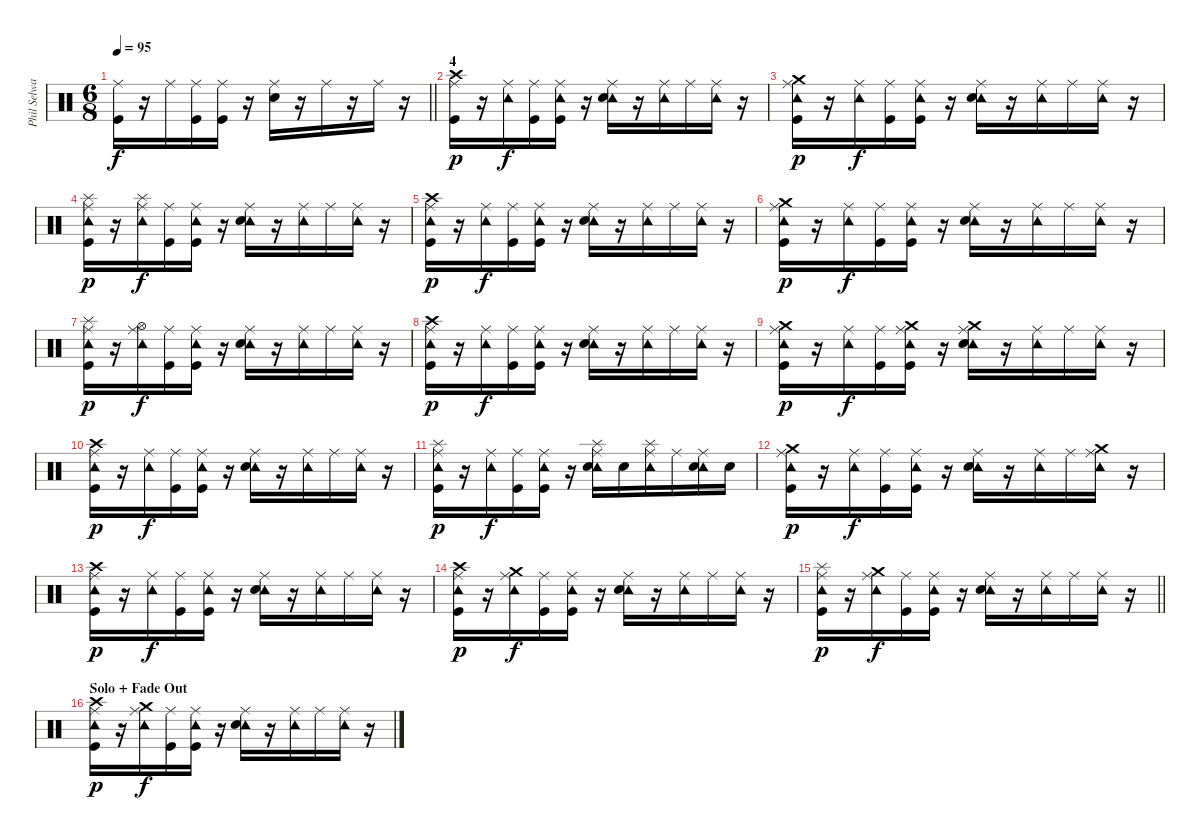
\track ("Phil Selway (Percussions)" "Phil Selwa") {instrument percussion}
\staff {score}
\articulation defaults
\ts (6 8)
\tempo 95
\clef neutral
\barLineRight lightlight
\ks c
("Ride (middle)" "Kick (hit)").16{dy f} r.16 "Ride (middle)".16 ("Ride (middle)" "Kick (hit)").16 ("Ride (middle)" "Kick (hit)").16 r.16 ("Ride (middle)" "Electric Snare (hit)").16 r.16 "Ride (middle)".16 r.16 "Ride (middle)".16 r.16 |
\section ("" "4")
("Ride (middle)" "Crash high (hit)" "Kick (hit)").16{dy p} r.16 ("Ride (middle)" "Tambourine (hit)").16{dy f} ("Ride (middle)" "Kick (hit)").16 ("Ride (middle)" "Tambourine (hit)" "Kick (hit)").16 r.16 ("Ride (middle)" "Tambourine (hit)" "Electric Snare (hit)").16 r.16 ("Ride (middle)" "Tambourine (hit)").16 "Ride (middle)".16 ("Ride (middle)" "Tambourine (hit)").16 r.16 |
("Ride (middle)" "Tambourine (hit)" "Crash medium (hit)" "Kick (hit)").16{dy p} r.16 ("Ride (middle)" "Tambourine (hit)").16{dy f} ("Ride (middle)" "Kick (hit)").16 ("Ride (middle)" "Tambourine (hit)" "Kick (hit)").16 r.16 ("Ride (middle)" "Tambourine (hit)" "Electric Snare (hit)").16 r.16 ("Ride (middle)" "Tambourine (hit)").16 "Ride (middle)".16 ("Ride (middle)" "Tambourine (hit)").16 r.16 |
("Ride (middle)" "Tambourine (hit)" "Splash (hit)" "Kick (hit)").16{dy p} r.16 ("Ride (middle)" "Tambourine (hit)" "Splash (hit)").16{dy f} ("Ride (middle)" "Kick (hit)").16 ("Ride (middle)" "Tambourine (hit)" "Kick (hit)").16 r.16 ("Ride (middle)" "Tambourine (hit)" "Electric Snare (hit)").16 r.16 ("Ride (middle)" "Tambourine (hit)").16 "Ride (middle)".16 ("Ride (middle)" "Tambourine (hit)").16 r.16 |
("Ride (middle)" "Tambourine (hit)" "Crash high (hit)" "Kick (hit)").16{dy p} r.16 ("Ride (middle)" "Tambourine (hit)").16{dy f} ("Ride (middle)" "Kick (hit)").16 ("Ride (middle)" "Tambourine (hit)" "Kick (hit)").16 r.16 ("Ride (middle)" "Tambourine (hit)" "Electric Snare (hit)").16 r.16 ("Ride (middle)" "Tambourine (hit)").16 "Ride (middle)".16 ("Ride (middle)" "Tambourine (hit)").16 r.16 |
("Ride (middle)" "Tambourine (hit)" "Crash medium (hit)" "Kick (hit)").16{dy p} r.16 ("Ride (middle)" "Tambourine (hit)").16{dy f} ("Ride (middle)" "Kick (hit)").16 ("Ride (middle)" "Tambourine (hit)" "Kick (hit)").16 r.16 ("Ride (middle)" "Tambourine (hit)" "Electric Snare (hit)").16 r.16 ("Ride (middle)" "Tambourine (hit)").16 "Ride (middle)".16 ("Ride (middle)" "Tambourine (hit)").16 r.16 |
("Ride (middle)" "Tambourine (hit)" "Splash (hit)" "Kick (hit)").16{dy p} r.16 ("Ride (middle)" "Tambourine (hit)" "Hi-Hat (open)").16{dy f} ("Ride (middle)" "Kick (hit)").16 ("Ride (middle)" "Tambourine (hit)" "Kick (hit)").16 r.16 ("Ride (middle)" "Tambourine (hit)" "Electric Snare (hit)").16 r.16 ("Ride (middle)" "Tambourine (hit)").16 "Ride (middle)".16 ("Ride (middle)" "Tambourine (hit)").16 r.16 |
("Ride (middle)" "Tambourine (hit)" "Crash high (hit)" "Kick (hit)").16{dy p} r.16 ("Ride (middle)" "Tambourine (hit)").16{dy f} ("Ride (middle)" "Kick (hit)").16 ("Ride (middle)" "Tambourine (hit)" "Kick (hit)").16 r.16 ("Ride (middle)" "Tambourine (hit)" "Electric Snare (hit)").16 r.16 ("Ride (middle)" "Tambourine (hit)").16 "Ride (middle)".16 ("Ride (middle)" "Tambourine (hit)").16 r.16 |
("Ride (middle)" "Tambourine (hit)" "Crash medium (hit)" "Kick (hit)").16{dy p} r.16 ("Ride (middle)" "Tambourine (hit)").16{dy f} ("Ride (middle)" "Kick (hit)").16 ("Ride (middle)" "Tambourine (hit)" "Crash medium (hit)" "Kick (hit)").16 r.16 ("Ride (middle)" "Tambourine (hit)" "Crash medium (hit)" "Electric Snare (hit)").16 r.16 ("Ride (middle)" "Tambourine (hit)").16 "Ride (middle)".16 ("Ride (middle)" "Tambourine (hit)").16 r.16 |
("Ride (middle)" "Tambourine (hit)" "Crash high (hit)" "Kick (hit)").16{dy p} r.16 ("Ride (middle)" "Tambourine (hit)").16{dy f} ("Ride (middle)" "Kick (hit)").16 ("Ride (middle)" "Tambourine (hit)" "Kick (hit)").16 r.16 ("Ride (middle)" "Tambourine (hit)" "Electric Snare (hit)").16 r.16 ("Ride (middle)" "Tambourine (hit)").16 "Ride (middle)".16 ("Ride (middle)" "Tambourine (hit)").16 r.16 |
("Ride (middle)" "Tambourine (hit)" "Splash (hit)" "Kick (hit)").16{dy p} r.16 ("Ride (middle)" "Tambourine (hit)").16{dy f} ("Ride (middle)" "Kick (hit)").16 ("Ride (middle)" "Tambourine (hit)" "Kick (hit)").16 r.16 ("Ride (middle)" "Tambourine (hit)" "Splash (hit)" "Electric Snare (hit)").16 "Electric Snare (hit)".16 ("Ride (middle)" "Tambourine (hit)" "Splash (hit)").16 "Ride (middle)".16 ("Ride (middle)" "Tambourine (hit)" "Electric Snare (hit)").16 "Snare (hit) 2".16 |
("Ride (middle)" "Tambourine (hit)" "Crash medium (hit)" "Kick (hit)").16{dy p} r.16 ("Ride (middle)" "Tambourine (hit)").16{dy f} ("Ride (middle)" "Kick (hit)").16 ("Ride (middle)" "Tambourine (hit)" "Kick (hit)").16 r.16 ("Ride (middle)" "Tambourine (hit)" "Electric Snare (hit)").16 r.16 ("Ride (middle)" "Tambourine (hit)").16 "Ride (middle)".16 ("Ride (middle)" "Tambourine (hit)" "Crash medium (hit)").16 r.16 |
("Ride (middle)" "Tambourine (hit)" "Crash high (hit)" "Kick (hit)").16{dy p} r.16 ("Ride (middle)" "Tambourine (hit)").16{dy f} ("Ride (middle)" "Kick (hit)").16 ("Ride (middle)" "Tambourine (hit)" "Kick (hit)").16 r.16 ("Ride (middle)" "Tambourine (hit)" "Electric Snare (hit)").16 r.16 ("Ride (middle)" "Tambourine (hit)").16 "Ride (middle)".16 ("Ride (middle)" "Tambourine (hit)").16 r.16 |
("Ride (middle)" "Tambourine (hit)" "Crash high (hit)" "Kick (hit)").16{dy p} r.16 ("Ride (middle)" "Tambourine (hit)" "Crash medium (hit)").16{dy f} ("Ride (middle)" "Kick (hit)").16 ("Ride (middle)" "Tambourine (hit)" "Kick (hit)").16 r.16 ("Ride (middle)" "Tambourine (hit)" "Electric Snare (hit)").16 r.16 ("Ride (middle)" "Tambourine (hit)").16 "Ride (middle)".16 ("Ride (middle)" "Tambourine (hit)").16 r.16 |
\barLineRight lightlight
("Ride (middle)" "Tambourine (hit)" "Splash (hit)" "Kick (hit)").16{dy p} r.16 ("Ride (middle)" "Tambourine (hit)" "Crash medium (hit)").16{dy f} ("Ride (middle)" "Kick (hit)").16 ("Ride (middle)" "Tambourine (hit)" "Kick (hit)").16 r.16 ("Ride (middle)" "Tambourine (hit)" "Electric Snare (hit)").16 r.16 ("Ride (middle)" "Tambourine (hit)").16 "Ride (middle)".16 ("Ride (middle)" "Tambourine (hit)").16 r.16 |
\section ("" "Solo + Fade Out")
("Ride (middle)" "Tambourine (hit)" "Crash high (hit)" "Kick (hit)").16{dy p} r.16 ("Ride (middle)" "Tambourine (hit)" "Crash medium (hit)").16{dy f} ("Ride (middle)" "Kick (hit)").16 ("Ride (middle)" "Tambourine (hit)" "Kick (hit)").16 r.16 ("Ride (middle)" "Tambourine (hit)" "Electric Snare (hit)").16 r.16 ("Ride (middle)" "Tambourine (hit)").16 "Ride (middle)".16 ("Ride (middle)" "Tambourine (hit)").16 r.16
